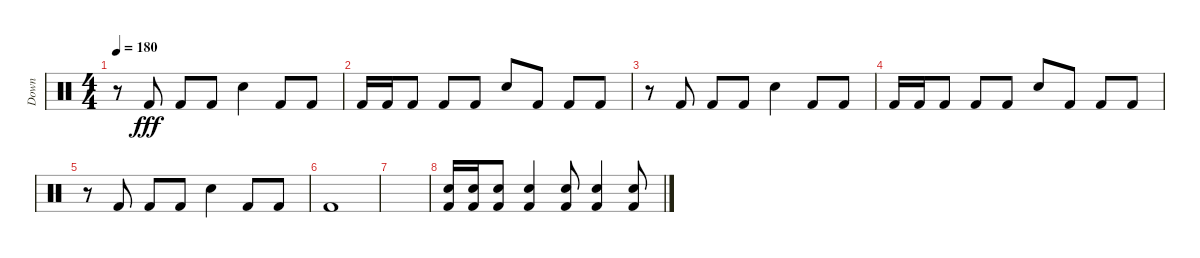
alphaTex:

\track ("Down" "Down") {instrument percussion}
\staff {score}
\articulation defaults
\ts (4 4)
\tempo 180
\clef neutral
\ks c
r.8{dy fff} "Kick (hit) 2".8 "Kick (hit) 2".8 "Kick (hit) 2".8 "Electric Snare (hit)".4 "Kick (hit) 2".8 "Kick (hit) 2".8 |
"Kick (hit) 2".16 "Kick (hit) 2".16 "Kick (hit) 2".8 "Kick (hit) 2".8 "Kick (hit) 2".8 "Electric Snare (hit)".8 "Kick (hit) 2".8 "Kick (hit) 2".8 "Kick (hit) 2".8 |
r.8 "Kick (hit) 2".8 "Kick (hit) 2".8 "Kick (hit) 2".8 "Electric Snare (hit)".4 "Kick (hit) 2".8 "Kick (hit) 2".8 |
"Kick (hit) 2".16 "Kick (hit) 2".16 "Kick (hit) 2".8 "Kick (hit) 2".8 "Kick (hit) 2".8 "Electric Snare (hit)".8 "Kick (hit) 2".8 "Kick (hit) 2".8 "Kick (hit) 2".8 |
r.8 "Kick (hit) 2".8 "Kick (hit) 2".8 "Kick (hit) 2".8 "Electric Snare (hit)".4 "Kick (hit) 2".8 "Kick (hit) 2".8 |
"Kick (hit) 2".1 |
|
("Electric Snare (hit)" "Kick (hit) 2").16 ("Electric Snare (hit)" "Kick (hit) 2").16 ("Electric Snare (hit)" "Kick (hit) 2").8 ("Electric Snare (hit)" "Kick (hit) 2").4 ("Electric Snare (hit)" "Kick (hit) 2").8 ("Electric Snare (hit)" "Kick (hit) 2").4 ("Electric Snare (hit)" "Kick (hit) 2").8
